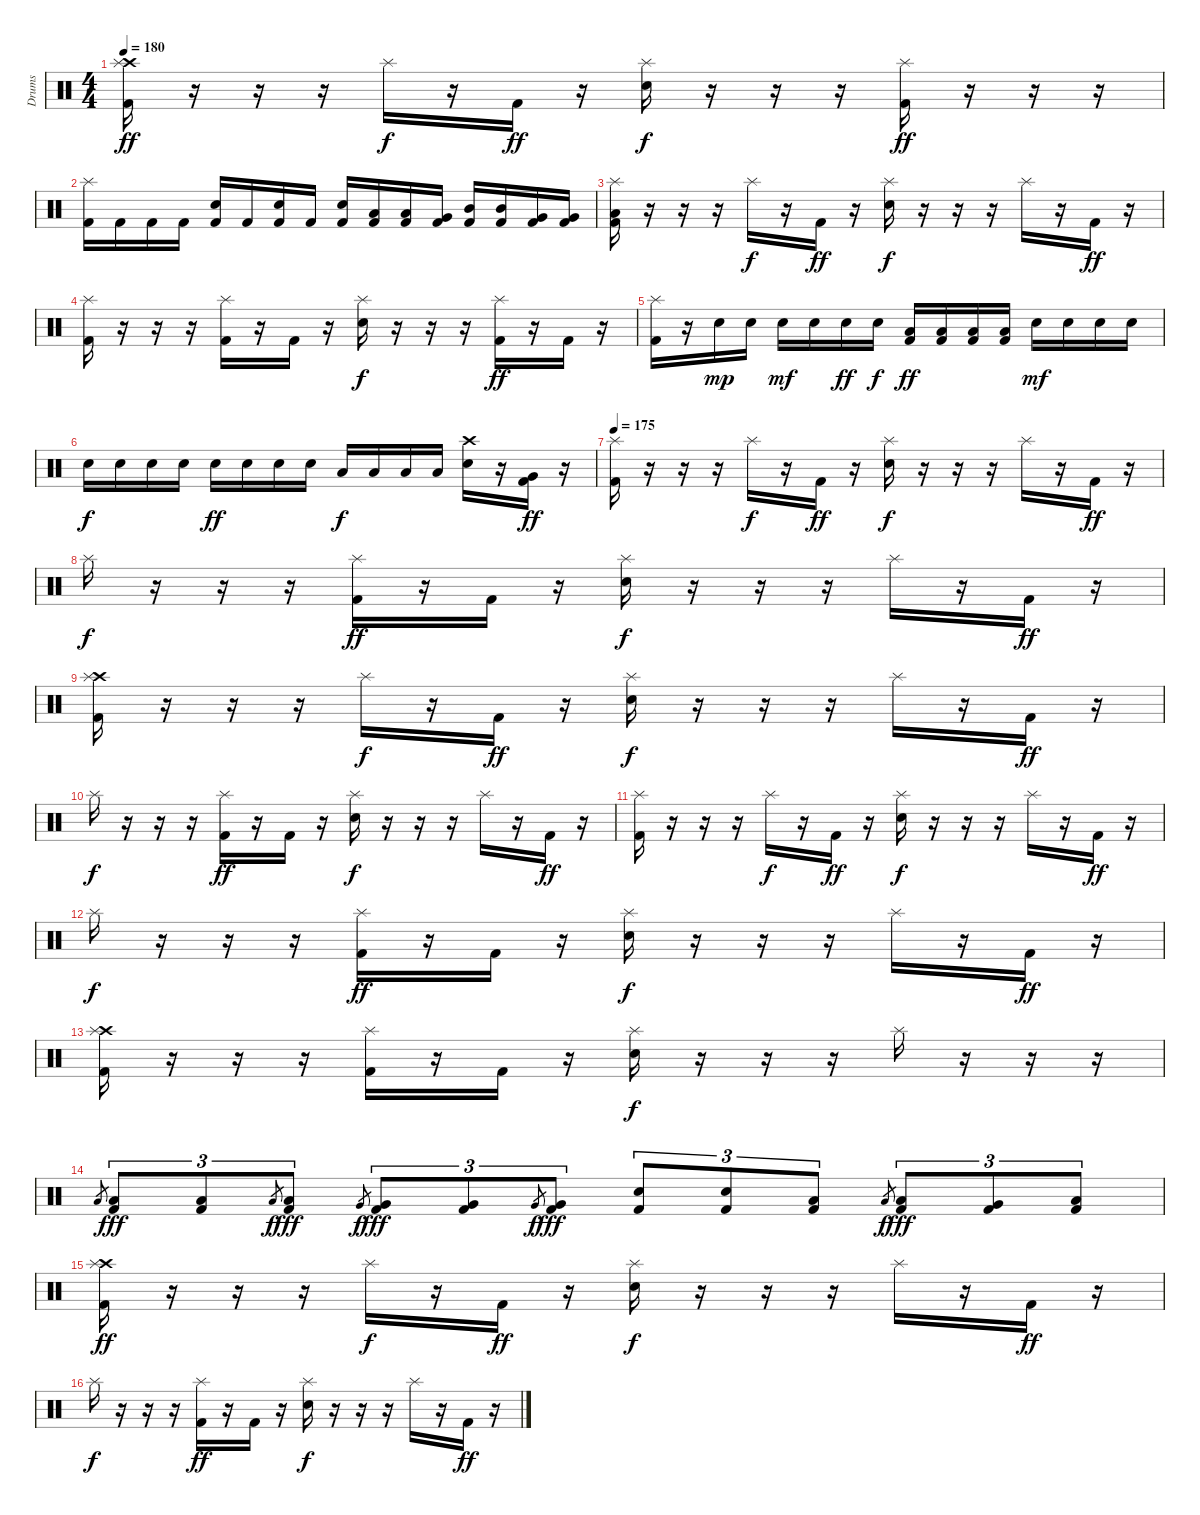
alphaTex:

\track ("Drums" "Drums") {instrument percussion}
\staff {score}
\articulation defaults
\ts (4 4)
\tempo 180
\clef neutral
\ks c
("Crash high (hit)" "Splash (hit)" "Kick (hit) 2").16{dy ff} r.16 r.16 r.16 "Splash (hit)".16{dy f} r.16 "Kick (hit) 2".16{dy ff} r.16 ("Splash (hit)" "Snare (hit) 2").16{dy f} r.16 r.16 r.16 ("Splash (hit)" "Kick (hit) 2").16{dy ff} r.16 r.16 r.16 |
("Splash (hit)" "Kick (hit) 2").16 "Kick (hit) 2".16 "Kick (hit) 2".16 "Kick (hit) 2".16 ("Snare (hit) 2" "Kick (hit) 2").16 "Kick (hit) 2".16 ("Snare (hit) 2" "Kick (hit) 2").16 "Kick (hit) 2".16 ("Snare (hit) 2" "Kick (hit) 2").16 ("Low Floor Tom (hit)" "Kick (hit) 2").16 ("Low Floor Tom (hit)" "Kick (hit) 2").16 ("Very Low Tom (hit)" "Kick (hit) 2").16 ("Mid Tom (hit)" "Kick (hit) 2").16 ("Mid Tom (hit)" "Kick (hit) 2").16 ("Very Low Tom (hit)" "Kick (hit) 2").16 ("Very Low Tom (hit)" "Kick (hit) 2").16 |
("Splash (hit)" "Low Floor Tom (hit)" "Kick (hit) 2").16 r.16 r.16 r.16 "Splash (hit)".16{dy f} r.16 "Kick (hit) 2".16{dy ff} r.16 ("Splash (hit)" "Snare (hit) 2").16{dy f} r.16 r.16 r.16 "Splash (hit)".16 r.16 "Kick (hit) 2".16{dy ff} r.16 |
("Splash (hit)" "Kick (hit) 2").16 r.16 r.16 r.16 ("Splash (hit)" "Kick (hit) 2").16 r.16 "Kick (hit) 2".16 r.16 ("Splash (hit)" "Snare (hit) 2").16{dy f} r.16 r.16 r.16 ("Splash (hit)" "Kick (hit) 2").16{dy ff} r.16 "Kick (hit) 2".16 r.16 |
("Splash (hit)" "Kick (hit) 2").16 r.16 "Snare (hit) 2".16{dy mp} "Snare (hit) 2".16 "Snare (hit) 2".16{dy mf} "Snare (hit) 2".16 "Snare (hit) 2".16{dy ff} "Snare (hit) 2".16{dy f} ("Low Floor Tom (hit)" "Kick (hit) 2").16{dy ff} ("Low Floor Tom (hit)" "Kick (hit) 2").16 ("Low Tom (hit)" "Kick (hit) 2").16 ("Low Tom (hit)" "Kick (hit) 2").16 "Snare (hit) 2".16{dy mf} "Snare (hit) 2".16 "Snare (hit) 2".16 "Snare (hit) 2".16 |
"Snare (hit) 2".16{dy f} "Snare (hit) 2".16 "Snare (hit) 2".16 "Snare (hit) 2".16 "Snare (hit) 2".16{dy ff} "Snare (hit) 2".16 "Snare (hit) 2".16 "Snare (hit) 2".16 "Low Tom (hit)".16{dy f} "Low Tom (hit)".16 "Low Tom (hit)".16 "Low Tom (hit)".16 ("Crash high (hit)" "Snare (hit) 2").16 r.16 ("Very Low Tom (hit)" "Kick (hit) 2").16{dy ff} r.16 |
\tempo 175
("Splash (hit)" "Kick (hit) 2").16 r.16 r.16 r.16 "Splash (hit)".16{dy f} r.16 "Kick (hit) 2".16{dy ff} r.16 ("Splash (hit)" "Snare (hit) 2").16{dy f} r.16 r.16 r.16 "Splash (hit)".16 r.16 "Kick (hit) 2".16{dy ff} r.16 |
"Splash (hit)".16{dy f} r.16 r.16 r.16 ("Splash (hit)" "Kick (hit) 2").16{dy ff} r.16 "Kick (hit) 2".16 r.16 ("Splash (hit)" "Snare (hit) 2").16{dy f} r.16 r.16 r.16 "Splash (hit)".16 r.16 "Kick (hit) 2".16{dy ff} r.16 |
("Crash high (hit)" "Splash (hit)" "Kick (hit) 2").16 r.16 r.16 r.16 "Splash (hit)".16{dy f} r.16 "Kick (hit) 2".16{dy ff} r.16 ("Splash (hit)" "Snare (hit) 2").16{dy f} r.16 r.16 r.16 "Splash (hit)".16 r.16 "Kick (hit) 2".16{dy ff} r.16 |
"Splash (hit)".16{dy f} r.16 r.16 r.16 ("Splash (hit)" "Kick (hit) 2").16{dy ff} r.16 "Kick (hit) 2".16 r.16 ("Splash (hit)" "Snare (hit) 2").16{dy f} r.16 r.16 r.16 "Splash (hit)".16 r.16 "Kick (hit) 2".16{dy ff} r.16 |
("Splash (hit)" "Kick (hit) 2").16 r.16 r.16 r.16 "Splash (hit)".16{dy f} r.16 "Kick (hit) 2".16{dy ff} r.16 ("Splash (hit)" "Snare (hit) 2").16{dy f} r.16 r.16 r.16 "Splash (hit)".16 r.16 "Kick (hit) 2".16{dy ff} r.16 |
"Splash (hit)".16{dy f} r.16 r.16 r.16 ("Splash (hit)" "Kick (hit) 2").16{dy ff} r.16 "Kick (hit) 2".16 r.16 ("Splash (hit)" "Snare (hit) 2").16{dy f} r.16 r.16 r.16 "Splash (hit)".16 r.16 "Kick (hit) 2".16{dy ff} r.16 |
("Crash high (hit)" "Splash (hit)" "Kick (hit) 2").16 r.16 r.16 r.16 ("Splash (hit)" "Kick (hit) 2").16 r.16 "Kick (hit) 2".16 r.16 ("Splash (hit)" "Snare (hit) 2").16{dy f} r.16 r.16 r.16 "Splash (hit)".16 r.16 r.16 r.16 |
"Low Floor Tom (hit)".8{gr} ("Low Floor Tom (hit)" "Kick (hit) 2").8{tu (3 2) dy fff} ("Low Floor Tom (hit)" "Kick (hit) 2").8{tu (3 2)} "Low Floor Tom (hit)".8{gr dy f} ("Low Floor Tom (hit)" "Kick (hit) 2").8{tu (3 2) dy fff} "Very Low Tom (hit)".8{gr dy f} ("Very Low Tom (hit)" "Kick (hit) 2").8{tu (3 2) dy fff} ("Very Low Tom (hit)" "Kick (hit) 2").8{tu (3 2)} "Very Low Tom (hit)".8{gr dy f} ("Very Low Tom (hit)" "Kick (hit) 2").8{tu (3 2) dy fff} ("Snare (hit) 2" "Kick (hit) 2").8{tu (3 2)} ("Snare (hit) 2" "Kick (hit) 2").8{tu (3 2)} ("Low Tom (hit)" "Kick (hit) 2").8{tu (3 2)} "Low Tom (hit)".8{gr dy f} ("Low Tom (hit)" "Kick (hit) 2").8{tu (3 2) dy fff} ("Very Low Tom (hit)" "Kick (hit) 2").8{tu (3 2)} ("Low Floor Tom (hit)" "Kick (hit) 2").8{tu (3 2)} |
("Crash high (hit)" "Splash (hit)" "Kick (hit) 2").16{dy ff} r.16 r.16 r.16 "Splash (hit)".16{dy f} r.16 "Kick (hit) 2".16{dy ff} r.16 ("Splash (hit)" "Snare (hit) 2").16{dy f} r.16 r.16 r.16 "Splash (hit)".16 r.16 "Kick (hit) 2".16{dy ff} r.16 |
"Splash (hit)".16{dy f} r.16 r.16 r.16 ("Splash (hit)" "Kick (hit) 2").16{dy ff} r.16 "Kick (hit) 2".16 r.16 ("Splash (hit)" "Snare (hit) 2").16{dy f} r.16 r.16 r.16 "Splash (hit)".16 r.16 "Kick (hit) 2".16{dy ff} r.16
